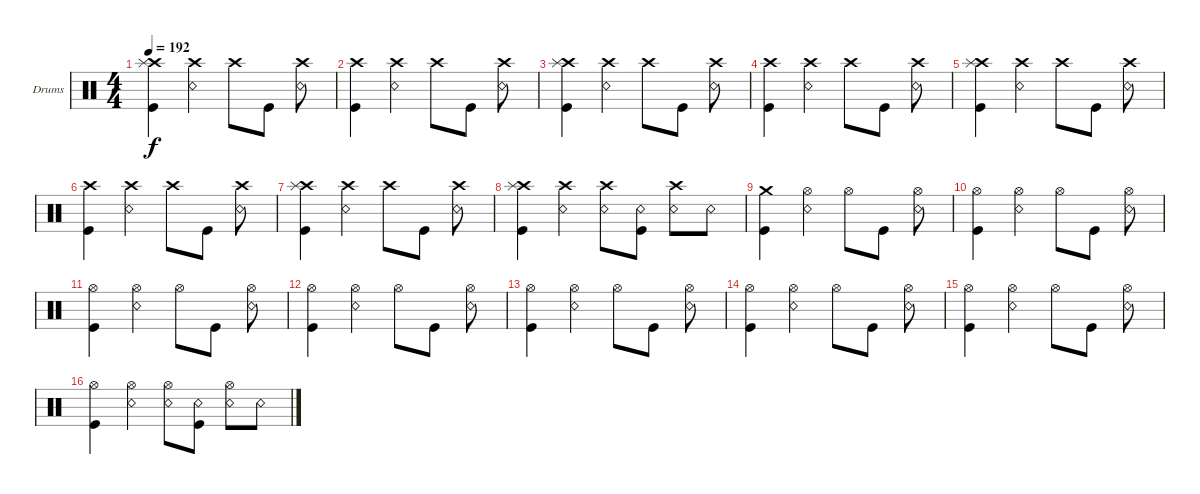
\defaultSystemsLayout 4
\bracketExtendMode groupsimilarinstruments
\firstSystemTrackNameOrientation horizontal
\otherSystemsTrackNameOrientation horizontal
\track ("Drumkit" "Drums") {instrument percussion}
\staff {score}
\articulation defaults
\ts (4 4)
\tempo 192
\clef neutral
\scale
0.333333
\ks c
("Kick (hit)" "Crash high (hit)" "Splash (hit)").4{dy f} ("Snare (rim shot)" "Crash high (hit)").4 "Crash high (hit)".8 "Kick (hit)".8 ("Snare (rim shot)" "Crash high (hit)").8 |
\scale
0.333333 ("Kick (hit)" "Crash high (hit)").4 ("Snare (rim shot)" "Crash high (hit)").4 "Crash high (hit)".8 "Kick (hit)".8 ("Snare (rim shot)" "Crash high (hit)").8 |
\scale
0.333333 ("Kick (hit)" "Crash high (hit)" "Splash (hit)").4 ("Snare (rim shot)" "Crash high (hit)").4 "Crash high (hit)".8 "Kick (hit)".8 ("Snare (rim shot)" "Crash high (hit)").8 |
\scale
0.333333 ("Kick (hit)" "Crash high (hit)").4 ("Snare (rim shot)" "Crash high (hit)").4 "Crash high (hit)".8 "Kick (hit)".8 ("Snare (rim shot)" "Crash high (hit)").8 |
\scale
0.333333 ("Kick (hit)" "Crash high (hit)" "Splash (hit)").4 ("Snare (rim shot)" "Crash high (hit)").4 "Crash high (hit)".8 "Kick (hit)".8 ("Snare (rim shot)" "Crash high (hit)").8 |
\scale
0.333333 ("Kick (hit)" "Crash high (hit)").4 ("Snare (rim shot)" "Crash high (hit)").4 "Crash high (hit)".8 "Kick (hit)".8 ("Snare (rim shot)" "Crash high (hit)").8 |
\scale
0.333333 ("Kick (hit)" "Crash high (hit)" "Splash (hit)").4 ("Snare (rim shot)" "Crash high (hit)").4 "Crash high (hit)".8 "Kick (hit)".8 ("Snare (rim shot)" "Crash high (hit)").8 |
\scale
0.333333 ("Kick (hit)" "Crash high (hit)" "Splash (hit)").4 ("Snare (rim shot)" "Crash high (hit)").4 ("Crash high (hit)" "Snare (rim shot)").8 ("Kick (hit)" "Snare (rim shot)").8 ("Snare (rim shot)" "Crash high (hit)").8 "Snare (rim shot)".8 |
\scale
0.333333 ("Kick (hit)" "Crash medium (hit)").4 ("Snare (rim shot)" "Hi-Hat (open)").4 "Hi-Hat (open)".8 "Kick (hit)".8 ("Snare (rim shot)" "Hi-Hat (open)").8 |
\scale
0.333333 ("Kick (hit)" "Hi-Hat (open)").4 ("Snare (rim shot)" "Hi-Hat (open)").4 "Hi-Hat (open)".8 "Kick (hit)".8 ("Snare (rim shot)" "Hi-Hat (open)").8 |
\scale
0.333333 ("Kick (hit)" "Hi-Hat (open)").4 ("Snare (rim shot)" "Hi-Hat (open)").4 "Hi-Hat (open)".8 "Kick (hit)".8 ("Snare (rim shot)" "Hi-Hat (open)").8 |
\scale
0.333333 ("Kick (hit)" "Hi-Hat (open)").4 ("Snare (rim shot)" "Hi-Hat (open)").4 "Hi-Hat (open)".8 "Kick (hit)".8 ("Snare (rim shot)" "Hi-Hat (open)").8 |
\scale
0.333333 ("Kick (hit)" "Hi-Hat (open)").4 ("Snare (rim shot)" "Hi-Hat (open)").4 "Hi-Hat (open)".8 "Kick (hit)".8 ("Snare (rim shot)" "Hi-Hat (open)").8 |
\scale
0.333333 ("Kick (hit)" "Hi-Hat (open)").4 ("Snare (rim shot)" "Hi-Hat (open)").4 "Hi-Hat (open)".8 "Kick (hit)".8 ("Snare (rim shot)" "Hi-Hat (open)").8 |
\scale
0.333333 ("Kick (hit)" "Hi-Hat (open)").4 ("Snare (rim shot)" "Hi-Hat (open)").4 "Hi-Hat (open)".8 "Kick (hit)".8 ("Snare (rim shot)" "Hi-Hat (open)").8 |
\scale
0.333333 ("Kick (hit)" "Hi-Hat (open)").4 ("Snare (rim shot)" "Hi-Hat (open)").4 ("Hi-Hat (open)" "Snare (rim shot)").8 ("Kick (hit)" "Snare (rim shot)").8 ("Snare (rim shot)" "Hi-Hat (open)").8 "Snare (rim shot)".8
